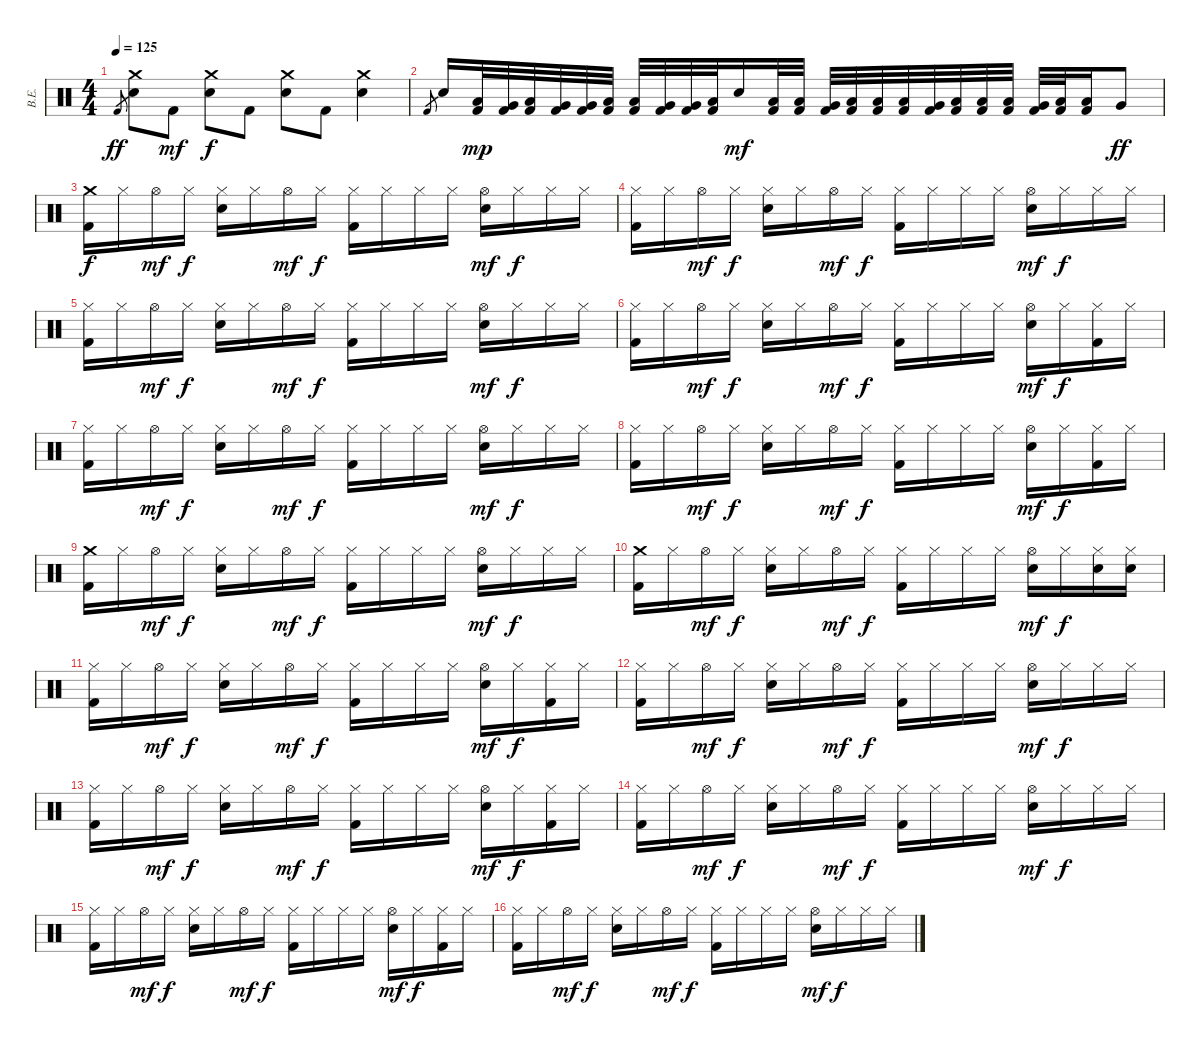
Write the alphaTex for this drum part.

\track ("В.Е." "В.Е.") {instrument percussion}
\staff {score}
\articulation defaults
\ts (4 4)
\tempo 125
\clef neutral
\ks c "Kick (hit) 2".8{gr dy ff}
("Crash medium (hit)" "Electric Snare (hit)").8 "Kick (hit) 2".8{dy mf} ("Crash medium (hit)" "Electric Snare (hit)").8{dy f} "Kick (hit) 2".8 ("Crash medium (hit)" "Electric Snare (hit)").8 "Kick (hit) 2".8 ("Crash medium (hit)" "Electric Snare (hit)").4 |
"Kick (hit) 2".8{gr} "Electric Snare (hit)".16 ("Low Tom (hit)" "Kick (hit) 2").32{dy mp} ("Very Low Tom (hit)" "Kick (hit) 2").32 ("Low Tom (hit)" "Kick (hit) 2").32 ("Very Low Tom (hit)" "Kick (hit) 2").32 ("Very Low Tom (hit)" "Kick (hit) 2").32 ("Low Tom (hit)" "Kick (hit) 2").32 ("Low Tom (hit)" "Kick (hit) 2").32 ("Very Low Tom (hit)" "Kick (hit) 2").32 ("Very Low Tom (hit)" "Kick (hit) 2").32 ("Low Tom (hit)" "Kick (hit) 2").32 "Electric Snare (hit)".16{dy mf} ("Low Tom (hit)" "Kick (hit) 2").32 ("Low Tom (hit)" "Kick (hit) 2").32 ("Very Low Tom (hit)" "Kick (hit) 2").32 ("Low Tom (hit)" "Kick (hit) 2").32 ("Low Tom (hit)" "Kick (hit) 2").32 ("Low Tom (hit)" "Kick (hit) 2").32 ("Very Low Tom (hit)" "Kick (hit) 2").32 ("Low Tom (hit)" "Kick (hit) 2").32 ("Low Tom (hit)" "Kick (hit) 2").32 ("Low Tom (hit)" "Kick (hit) 2").32 ("Very Low Tom (hit)" "Kick (hit) 2").32 ("Low Tom (hit)" "Kick (hit) 2").32 ("Low Tom (hit)" "Kick (hit) 2").16 "Very Low Tom (hit)".8{dy ff} |
("Crash medium (hit)" "Kick (hit) 2").16{dy f} "Hi-Hat (closed)".16 "Hi-Hat (open)".16{dy mf} "Hi-Hat (closed)".16{dy f} ("Hi-Hat (closed)" "Electric Snare (hit)").16 "Hi-Hat (closed)".16 "Hi-Hat (open)".16{dy mf} "Hi-Hat (closed)".16{dy f} ("Hi-Hat (closed)" "Kick (hit) 2").16 "Hi-Hat (closed)".16 "Hi-Hat (closed)".16 "Hi-Hat (closed)".16 ("Hi-Hat (open)" "Electric Snare (hit)").16{dy mf} "Hi-Hat (closed)".16{dy f} "Hi-Hat (closed)".16 "Hi-Hat (closed)".16 |
("Hi-Hat (closed)" "Kick (hit) 2").16 "Hi-Hat (closed)".16 "Hi-Hat (open)".16{dy mf} "Hi-Hat (closed)".16{dy f} ("Hi-Hat (closed)" "Electric Snare (hit)").16 "Hi-Hat (closed)".16 "Hi-Hat (open)".16{dy mf} "Hi-Hat (closed)".16{dy f} ("Hi-Hat (closed)" "Kick (hit) 2").16 "Hi-Hat (closed)".16 "Hi-Hat (closed)".16 "Hi-Hat (closed)".16 ("Hi-Hat (open)" "Electric Snare (hit)").16{dy mf} "Hi-Hat (closed)".16{dy f} "Hi-Hat (closed)".16 "Hi-Hat (closed)".16 |
("Hi-Hat (closed)" "Kick (hit) 2").16 "Hi-Hat (closed)".16 "Hi-Hat (open)".16{dy mf} "Hi-Hat (closed)".16{dy f} ("Hi-Hat (closed)" "Electric Snare (hit)").16 "Hi-Hat (closed)".16 "Hi-Hat (open)".16{dy mf} "Hi-Hat (closed)".16{dy f} ("Hi-Hat (closed)" "Kick (hit) 2").16 "Hi-Hat (closed)".16 "Hi-Hat (closed)".16 "Hi-Hat (closed)".16 ("Hi-Hat (open)" "Electric Snare (hit)").16{dy mf} "Hi-Hat (closed)".16{dy f} "Hi-Hat (closed)".16 "Hi-Hat (closed)".16 |
("Hi-Hat (closed)" "Kick (hit) 2").16 "Hi-Hat (closed)".16 "Hi-Hat (open)".16{dy mf} "Hi-Hat (closed)".16{dy f} ("Hi-Hat (closed)" "Electric Snare (hit)").16 "Hi-Hat (closed)".16 "Hi-Hat (open)".16{dy mf} "Hi-Hat (closed)".16{dy f} ("Hi-Hat (closed)" "Kick (hit) 2").16 "Hi-Hat (closed)".16 "Hi-Hat (closed)".16 "Hi-Hat (closed)".16 ("Hi-Hat (open)" "Electric Snare (hit)").16{dy mf} "Hi-Hat (closed)".16{dy f} ("Hi-Hat (closed)" "Kick (hit) 2").16 "Hi-Hat (closed)".16 |
("Hi-Hat (closed)" "Kick (hit) 2").16 "Hi-Hat (closed)".16 "Hi-Hat (open)".16{dy mf} "Hi-Hat (closed)".16{dy f} ("Hi-Hat (closed)" "Electric Snare (hit)").16 "Hi-Hat (closed)".16 "Hi-Hat (open)".16{dy mf} "Hi-Hat (closed)".16{dy f} ("Hi-Hat (closed)" "Kick (hit) 2").16 "Hi-Hat (closed)".16 "Hi-Hat (closed)".16 "Hi-Hat (closed)".16 ("Hi-Hat (open)" "Electric Snare (hit)").16{dy mf} "Hi-Hat (closed)".16{dy f} "Hi-Hat (closed)".16 "Hi-Hat (closed)".16 |
("Hi-Hat (closed)" "Kick (hit) 2").16 "Hi-Hat (closed)".16 "Hi-Hat (open)".16{dy mf} "Hi-Hat (closed)".16{dy f} ("Hi-Hat (closed)" "Electric Snare (hit)").16 "Hi-Hat (closed)".16 "Hi-Hat (open)".16{dy mf} "Hi-Hat (closed)".16{dy f} ("Hi-Hat (closed)" "Kick (hit) 2").16 "Hi-Hat (closed)".16 "Hi-Hat (closed)".16 "Hi-Hat (closed)".16 ("Hi-Hat (open)" "Electric Snare (hit)").16{dy mf} "Hi-Hat (closed)".16{dy f} ("Hi-Hat (closed)" "Kick (hit) 2").16 "Hi-Hat (closed)".16 |
("Crash medium (hit)" "Kick (hit) 2").16 "Hi-Hat (closed)".16 "Hi-Hat (open)".16{dy mf} "Hi-Hat (closed)".16{dy f} ("Hi-Hat (closed)" "Electric Snare (hit)").16 "Hi-Hat (closed)".16 "Hi-Hat (open)".16{dy mf} "Hi-Hat (closed)".16{dy f} ("Hi-Hat (closed)" "Kick (hit) 2").16 "Hi-Hat (closed)".16 "Hi-Hat (closed)".16 "Hi-Hat (closed)".16 ("Hi-Hat (open)" "Electric Snare (hit)").16{dy mf} "Hi-Hat (closed)".16{dy f} "Hi-Hat (closed)".16 "Hi-Hat (closed)".16 |
("Crash medium (hit)" "Kick (hit) 2").16 "Hi-Hat (closed)".16 "Hi-Hat (open)".16{dy mf} "Hi-Hat (closed)".16{dy f} ("Hi-Hat (closed)" "Electric Snare (hit)").16 "Hi-Hat (closed)".16 "Hi-Hat (open)".16{dy mf} "Hi-Hat (closed)".16{dy f} ("Hi-Hat (closed)" "Kick (hit) 2").16 "Hi-Hat (closed)".16 "Hi-Hat (closed)".16 "Hi-Hat (closed)".16 ("Hi-Hat (open)" "Electric Snare (hit)").16{dy mf} "Hi-Hat (closed)".16{dy f} ("Hi-Hat (closed)" "Electric Snare (hit)").16 ("Hi-Hat (closed)" "Electric Snare (hit)").16 |
("Hi-Hat (closed)" "Kick (hit) 2").16 "Hi-Hat (closed)".16 "Hi-Hat (open)".16{dy mf} "Hi-Hat (closed)".16{dy f} ("Hi-Hat (closed)" "Electric Snare (hit)").16 "Hi-Hat (closed)".16 "Hi-Hat (open)".16{dy mf} "Hi-Hat (closed)".16{dy f} ("Hi-Hat (closed)" "Kick (hit) 2").16 "Hi-Hat (closed)".16 "Hi-Hat (closed)".16 "Hi-Hat (closed)".16 ("Hi-Hat (open)" "Electric Snare (hit)").16{dy mf} "Hi-Hat (closed)".16{dy f} ("Hi-Hat (closed)" "Kick (hit) 2").16 "Hi-Hat (closed)".16 |
("Hi-Hat (closed)" "Kick (hit) 2").16 "Hi-Hat (closed)".16 "Hi-Hat (open)".16{dy mf} "Hi-Hat (closed)".16{dy f} ("Hi-Hat (closed)" "Electric Snare (hit)").16 "Hi-Hat (closed)".16 "Hi-Hat (open)".16{dy mf} "Hi-Hat (closed)".16{dy f} ("Hi-Hat (closed)" "Kick (hit) 2").16 "Hi-Hat (closed)".16 "Hi-Hat (closed)".16 "Hi-Hat (closed)".16 ("Hi-Hat (open)" "Electric Snare (hit)").16{dy mf} "Hi-Hat (closed)".16{dy f} "Hi-Hat (closed)".16 "Hi-Hat (closed)".16 |
("Hi-Hat (closed)" "Kick (hit) 2").16 "Hi-Hat (closed)".16 "Hi-Hat (open)".16{dy mf} "Hi-Hat (closed)".16{dy f} ("Hi-Hat (closed)" "Electric Snare (hit)").16 "Hi-Hat (closed)".16 "Hi-Hat (open)".16{dy mf} "Hi-Hat (closed)".16{dy f} ("Hi-Hat (closed)" "Kick (hit) 2").16 "Hi-Hat (closed)".16 "Hi-Hat (closed)".16 "Hi-Hat (closed)".16 ("Hi-Hat (open)" "Electric Snare (hit)").16{dy mf} "Hi-Hat (closed)".16{dy f} ("Hi-Hat (closed)" "Kick (hit) 2").16 "Hi-Hat (closed)".16 |
("Hi-Hat (closed)" "Kick (hit) 2").16 "Hi-Hat (closed)".16 "Hi-Hat (open)".16{dy mf} "Hi-Hat (closed)".16{dy f} ("Hi-Hat (closed)" "Electric Snare (hit)").16 "Hi-Hat (closed)".16 "Hi-Hat (open)".16{dy mf} "Hi-Hat (closed)".16{dy f} ("Hi-Hat (closed)" "Kick (hit) 2").16 "Hi-Hat (closed)".16 "Hi-Hat (closed)".16 "Hi-Hat (closed)".16 ("Hi-Hat (open)" "Electric Snare (hit)").16{dy mf} "Hi-Hat (closed)".16{dy f} "Hi-Hat (closed)".16 "Hi-Hat (closed)".16 |
("Hi-Hat (closed)" "Kick (hit) 2").16 "Hi-Hat (closed)".16 "Hi-Hat (open)".16{dy mf} "Hi-Hat (closed)".16{dy f} ("Hi-Hat (closed)" "Electric Snare (hit)").16 "Hi-Hat (closed)".16 "Hi-Hat (open)".16{dy mf} "Hi-Hat (closed)".16{dy f} ("Hi-Hat (closed)" "Kick (hit) 2").16 "Hi-Hat (closed)".16 "Hi-Hat (closed)".16 "Hi-Hat (closed)".16 ("Hi-Hat (open)" "Electric Snare (hit)").16{dy mf} "Hi-Hat (closed)".16{dy f} ("Hi-Hat (closed)" "Kick (hit) 2").16 "Hi-Hat (closed)".16 |
("Hi-Hat (closed)" "Kick (hit) 2").16 "Hi-Hat (closed)".16 "Hi-Hat (open)".16{dy mf} "Hi-Hat (closed)".16{dy f} ("Hi-Hat (closed)" "Electric Snare (hit)").16 "Hi-Hat (closed)".16 "Hi-Hat (open)".16{dy mf} "Hi-Hat (closed)".16{dy f} ("Hi-Hat (closed)" "Kick (hit) 2").16 "Hi-Hat (closed)".16 "Hi-Hat (closed)".16 "Hi-Hat (closed)".16 ("Hi-Hat (open)" "Electric Snare (hit)").16{dy mf} "Hi-Hat (closed)".16{dy f} "Hi-Hat (closed)".16 "Hi-Hat (closed)".16
